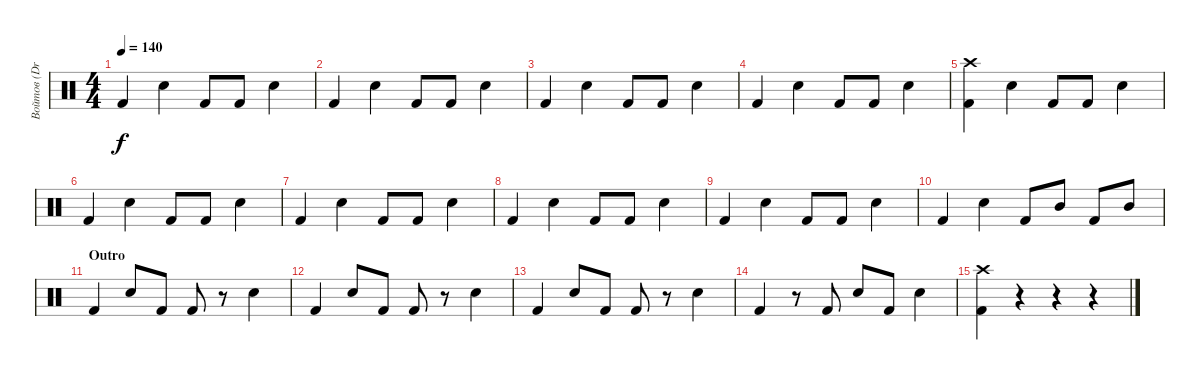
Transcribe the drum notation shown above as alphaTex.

\track ("Войтов (Drums)" "Войтов (Dr") {instrument percussion}
\staff {score}
\articulation defaults
\ts (4 4)
\tempo 140
\clef neutral
\ks c "Kick (hit) 2".4{dy f} "Electric Snare (hit)".4 "Kick (hit) 2".8 "Kick (hit) 2".8 "Electric Snare (hit)".4
|
"Kick (hit) 2".4 "Electric Snare (hit)".4 "Kick (hit) 2".8 "Kick (hit) 2".8 "Electric Snare (hit)".4 |
"Kick (hit) 2".4 "Electric Snare (hit)".4 "Kick (hit) 2".8 "Kick (hit) 2".8 "Electric Snare (hit)".4 |
"Kick (hit) 2".4 "Electric Snare (hit)".4 "Kick (hit) 2".8 "Kick (hit) 2".8 "Electric Snare (hit)".4 |
("Kick (hit) 2" "Crash high (hit)").4 "Electric Snare (hit)".4 "Kick (hit) 2".8 "Kick (hit) 2".8 "Electric Snare (hit)".4 |
"Kick (hit) 2".4 "Electric Snare (hit)".4 "Kick (hit) 2".8 "Kick (hit) 2".8 "Electric Snare (hit)".4 |
"Kick (hit) 2".4 "Electric Snare (hit)".4 "Kick (hit) 2".8 "Kick (hit) 2".8 "Electric Snare (hit)".4 |
"Kick (hit) 2".4 "Electric Snare (hit)".4 "Kick (hit) 2".8 "Kick (hit) 2".8 "Electric Snare (hit)".4 |
"Kick (hit) 2".4 "Electric Snare (hit)".4 "Kick (hit) 2".8 "Kick (hit) 2".8 "Electric Snare (hit)".4 |
"Kick (hit) 2".4 "Electric Snare (hit)".4 "Kick (hit) 2".8 "Mid Tom (hit)".8 "Kick (hit) 2".8 "Mid Tom (hit)".8 |
\section ("" "Outro")
"Kick (hit) 2".4 "Electric Snare (hit)".8 "Kick (hit) 2".8 "Kick (hit) 2".8 r.8 "Electric Snare (hit)".4 |
"Kick (hit) 2".4 "Electric Snare (hit)".8 "Kick (hit) 2".8 "Kick (hit) 2".8 r.8 "Electric Snare (hit)".4 |
"Kick (hit) 2".4 "Electric Snare (hit)".8 "Kick (hit) 2".8 "Kick (hit) 2".8 r.8 "Electric Snare (hit)".4 |
"Kick (hit) 2".4 r.8 "Kick (hit) 2".8 "Electric Snare (hit)".8 "Kick (hit) 2".8 "Electric Snare (hit)".4 |
("Kick (hit) 2" "Crash high (hit)").4 r.4 r.4 r.4
